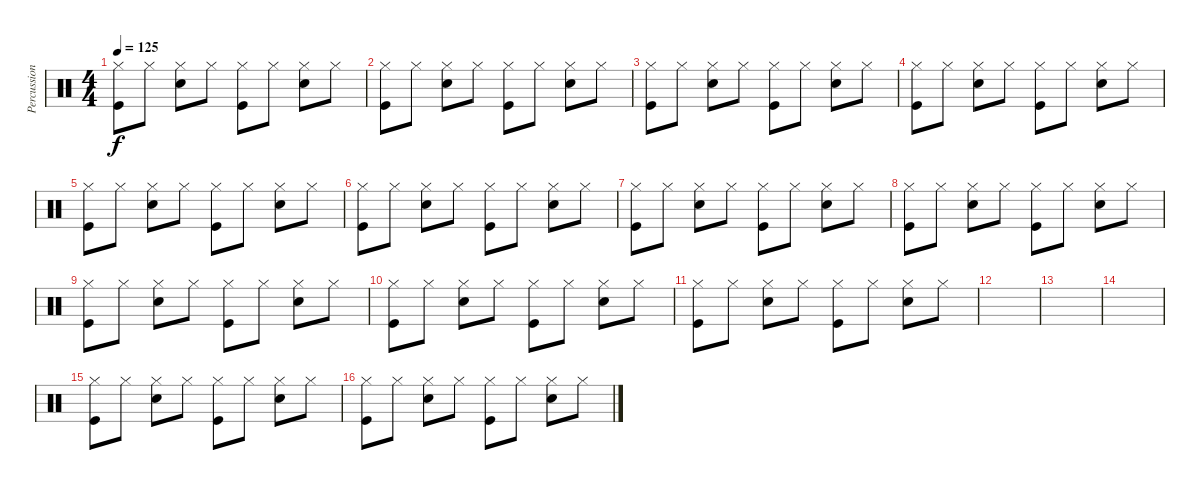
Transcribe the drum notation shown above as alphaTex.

\track ("Percussion" "Percussion") {instrument percussion}
\staff {score}
\articulation defaults
\ts (4 4)
\tempo 125
\clef neutral
\ks c
("Hi-Hat (closed)" "Kick (hit)").8{dy f} "Hi-Hat (closed)".8 ("Snare (hit) 2" "Hi-Hat (closed)").8 "Hi-Hat (closed)".8 ("Hi-Hat (closed)" "Kick (hit)").8 "Hi-Hat (closed)".8 ("Snare (hit) 2" "Hi-Hat (closed)").8 "Hi-Hat (closed)".8 |
("Hi-Hat (closed)" "Kick (hit)").8 "Hi-Hat (closed)".8 ("Snare (hit) 2" "Hi-Hat (closed)").8 "Hi-Hat (closed)".8 ("Hi-Hat (closed)" "Kick (hit)").8 "Hi-Hat (closed)".8 ("Snare (hit) 2" "Hi-Hat (closed)").8 "Hi-Hat (closed)".8 |
("Hi-Hat (closed)" "Kick (hit)").8 "Hi-Hat (closed)".8 ("Snare (hit) 2" "Hi-Hat (closed)").8 "Hi-Hat (closed)".8 ("Hi-Hat (closed)" "Kick (hit)").8 "Hi-Hat (closed)".8 ("Snare (hit) 2" "Hi-Hat (closed)").8 "Hi-Hat (closed)".8 |
("Hi-Hat (closed)" "Kick (hit)").8 "Hi-Hat (closed)".8 ("Snare (hit) 2" "Hi-Hat (closed)").8 "Hi-Hat (closed)".8 ("Hi-Hat (closed)" "Kick (hit)").8 "Hi-Hat (closed)".8 ("Snare (hit) 2" "Hi-Hat (closed)").8 "Hi-Hat (closed)".8 |
("Hi-Hat (closed)" "Kick (hit)").8 "Hi-Hat (closed)".8 ("Snare (hit) 2" "Hi-Hat (closed)").8 "Hi-Hat (closed)".8 ("Hi-Hat (closed)" "Kick (hit)").8 "Hi-Hat (closed)".8 ("Snare (hit) 2" "Hi-Hat (closed)").8 "Hi-Hat (closed)".8 |
("Hi-Hat (closed)" "Kick (hit)").8 "Hi-Hat (closed)".8 ("Snare (hit) 2" "Hi-Hat (closed)").8 "Hi-Hat (closed)".8 ("Hi-Hat (closed)" "Kick (hit)").8 "Hi-Hat (closed)".8 ("Snare (hit) 2" "Hi-Hat (closed)").8 "Hi-Hat (closed)".8 |
("Hi-Hat (closed)" "Kick (hit)").8 "Hi-Hat (closed)".8 ("Snare (hit) 2" "Hi-Hat (closed)").8 "Hi-Hat (closed)".8 ("Hi-Hat (closed)" "Kick (hit)").8 "Hi-Hat (closed)".8 ("Snare (hit) 2" "Hi-Hat (closed)").8 "Hi-Hat (closed)".8 |
("Hi-Hat (closed)" "Kick (hit)").8 "Hi-Hat (closed)".8 ("Snare (hit) 2" "Hi-Hat (closed)").8 "Hi-Hat (closed)".8 ("Hi-Hat (closed)" "Kick (hit)").8 "Hi-Hat (closed)".8 ("Snare (hit) 2" "Hi-Hat (closed)").8 "Hi-Hat (closed)".8 |
("Hi-Hat (closed)" "Kick (hit)").8 "Hi-Hat (closed)".8 ("Snare (hit) 2" "Hi-Hat (closed)").8 "Hi-Hat (closed)".8 ("Hi-Hat (closed)" "Kick (hit)").8 "Hi-Hat (closed)".8 ("Snare (hit) 2" "Hi-Hat (closed)").8 "Hi-Hat (closed)".8 |
("Hi-Hat (closed)" "Kick (hit)").8 "Hi-Hat (closed)".8 ("Snare (hit) 2" "Hi-Hat (closed)").8 "Hi-Hat (closed)".8 ("Hi-Hat (closed)" "Kick (hit)").8 "Hi-Hat (closed)".8 ("Snare (hit) 2" "Hi-Hat (closed)").8 "Hi-Hat (closed)".8 |
("Hi-Hat (closed)" "Kick (hit)").8 "Hi-Hat (closed)".8 ("Snare (hit) 2" "Hi-Hat (closed)").8 "Hi-Hat (closed)".8 ("Hi-Hat (closed)" "Kick (hit)").8 "Hi-Hat (closed)".8 ("Snare (hit) 2" "Hi-Hat (closed)").8 "Hi-Hat (closed)".8 |
|
|
|
("Hi-Hat (closed)" "Kick (hit)").8 "Hi-Hat (closed)".8 ("Snare (hit) 2" "Hi-Hat (closed)").8 "Hi-Hat (closed)".8 ("Hi-Hat (closed)" "Kick (hit)").8 "Hi-Hat (closed)".8 ("Snare (hit) 2" "Hi-Hat (closed)").8 "Hi-Hat (closed)".8 |
("Hi-Hat (closed)" "Kick (hit)").8 "Hi-Hat (closed)".8 ("Snare (hit) 2" "Hi-Hat (closed)").8 "Hi-Hat (closed)".8 ("Hi-Hat (closed)" "Kick (hit)").8 "Hi-Hat (closed)".8 ("Snare (hit) 2" "Hi-Hat (closed)").8 "Hi-Hat (closed)".8
